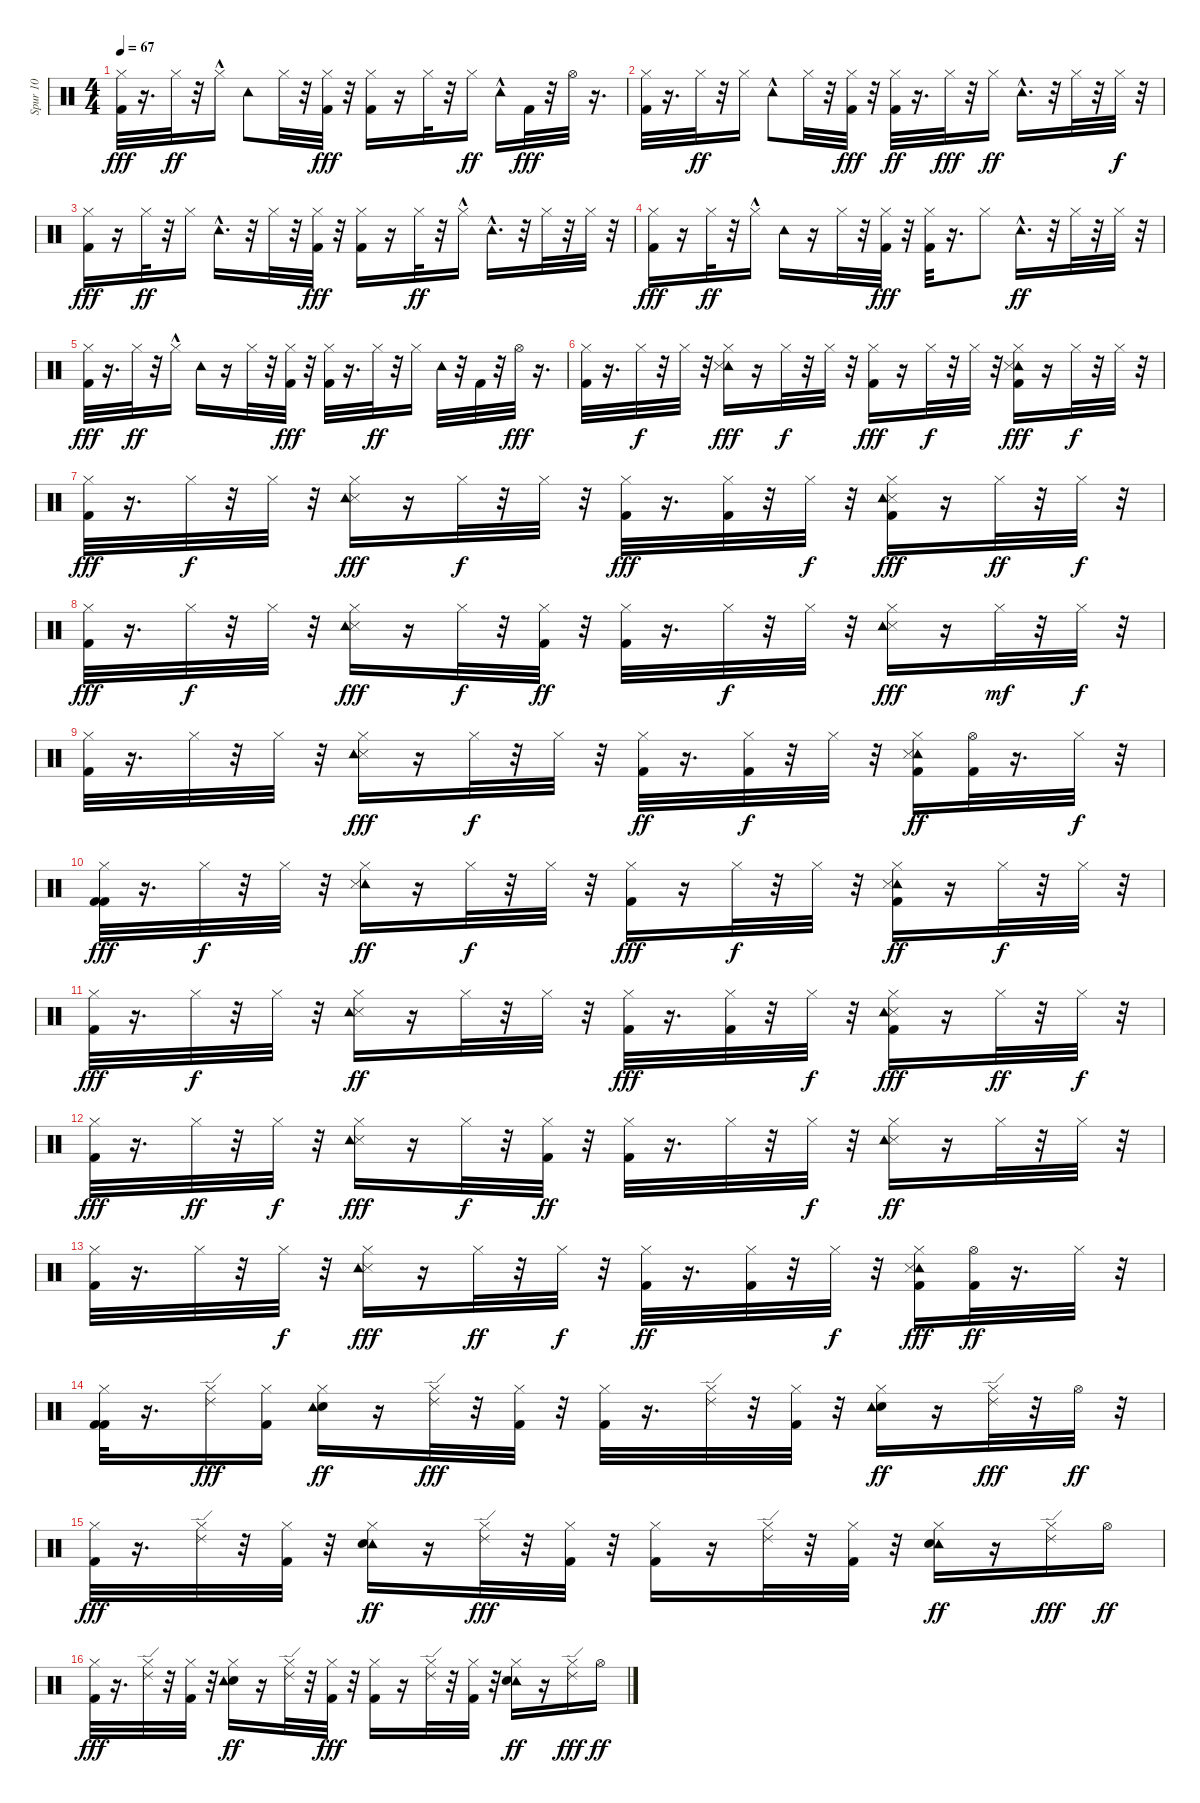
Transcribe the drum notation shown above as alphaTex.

\track ("Spur 10" "Spur 10") {instrument percussion}
\staff {score}
\articulation defaults
\ts (4 4)
\tempo 67
\clef neutral
\ks c
("Hi-Hat (closed)" "Kick (hit) 2").32{dy fff} r.16{d} "Hi-Hat (closed)".32{dy ff} r.32 "Hi-Hat (closed)"{hac}.16 "Tambourine (hit)".8 "Hi-Hat (closed)".32 r.32 ("Hi-Hat (closed)" "Kick (hit) 2").32{dy fff} r.32 ("Hi-Hat (closed)" "Kick (hit) 2").16 r.16 "Hi-Hat (closed)".32 r.32 "Hi-Hat (closed)".16{dy ff} "Tambourine (hit)"{hac}.16 "Kick (hit) 2".32{dy fff} r.32 "Hi-Hat (open)".32 r.16{d} |
("Hi-Hat (closed)" "Kick (hit) 2").32 r.16{d} "Hi-Hat (closed)".32{dy ff} r.32 "Hi-Hat (closed)".16 "Tambourine (hit)"{hac}.8 "Hi-Hat (closed)".32 r.32 ("Hi-Hat (closed)" "Kick (hit) 2").32{dy fff} r.32 ("Hi-Hat (closed)" "Kick (hit) 2").32{dy ff} r.16{d} "Hi-Hat (closed)".32{dy fff} r.32 "Hi-Hat (closed)".16{dy ff} "Tambourine (hit)"{hac}.16{d} r.32 "Hi-Hat (closed)".32 r.32 "Hi-Hat (closed)".32{dy f} r.32 |
("Hi-Hat (closed)" "Kick (hit) 2").16{dy fff} r.16 "Hi-Hat (closed)".32{dy ff} r.32 "Hi-Hat (closed)".16 "Tambourine (hit)"{hac}.16{d} r.32 "Hi-Hat (closed)".32 r.32 ("Hi-Hat (closed)" "Kick (hit) 2").32{dy fff} r.32 ("Hi-Hat (closed)" "Kick (hit) 2").16 r.16 "Hi-Hat (closed)".32{dy ff} r.32 "Hi-Hat (closed)"{hac}.16 "Tambourine (hit)"{hac}.16{d} r.32 "Hi-Hat (closed)".32 r.32 "Hi-Hat (closed)".32 r.32 |
("Hi-Hat (closed)" "Kick (hit) 2").16{dy fff} r.16 "Hi-Hat (closed)".32{dy ff} r.32 "Hi-Hat (closed)"{hac}.16 "Tambourine (hit)".16 r.16 "Hi-Hat (closed)".32 r.32 ("Hi-Hat (closed)" "Kick (hit) 2").32{dy fff} r.32 ("Hi-Hat (closed)" "Kick (hit) 2").32 r.16{d} "Hi-Hat (closed)".8 "Tambourine (hit)"{hac}.16{d dy ff} r.32 "Hi-Hat (closed)".32 r.32 "Hi-Hat (closed)".32 r.32 |
("Hi-Hat (closed)" "Kick (hit) 2").32{dy fff} r.16{d} "Hi-Hat (closed)".32{dy ff} r.32 "Hi-Hat (closed)"{hac}.16 "Tambourine (hit)".16 r.16 "Hi-Hat (closed)".32 r.32 ("Hi-Hat (closed)" "Kick (hit) 2").32{dy fff} r.32 ("Hi-Hat (closed)" "Kick (hit) 2").32 r.16{d} "Hi-Hat (closed)".32{dy ff} r.32 "Hi-Hat (closed)".16 "Tambourine (hit)".32 r.32 "Kick (hit) 2".32 r.32 "Hi-Hat (open)".32{dy fff} r.16{d} |
("Hi-Hat (closed)" "Kick (hit) 2").32 r.16{d} "Hi-Hat (closed)".32{dy f} r.32 "Hi-Hat (closed)".32 r.32 ("Hi-Hat (closed)" "Tambourine (hit)" "Snare (side stick) 3").16{dy fff} r.16 "Hi-Hat (closed)".32{dy f} r.32 "Hi-Hat (closed)".32 r.32 ("Hi-Hat (closed)" "Kick (hit) 2").16{dy fff} r.16 "Hi-Hat (closed)".32{dy f} r.32 "Hi-Hat (closed)".32 r.32 ("Hi-Hat (closed)" "Kick (hit) 2" "Tambourine (hit)" "Snare (side stick) 3").16{dy fff} r.16 "Hi-Hat (closed)".32{dy f} r.32 "Hi-Hat (closed)".32 r.32 |
("Hi-Hat (closed)" "Kick (hit) 2").32{dy fff} r.16{d} "Hi-Hat (closed)".32{dy f} r.32 "Hi-Hat (closed)".32 r.32 ("Hi-Hat (closed)" "Snare (side stick) 3" "Tambourine (hit)").16{dy fff} r.16 "Hi-Hat (closed)".32{dy f} r.32 "Hi-Hat (closed)".32 r.32 ("Hi-Hat (closed)" "Kick (hit) 2").32{dy fff} r.16{d} ("Hi-Hat (closed)" "Kick (hit) 2").32 r.32 "Hi-Hat (closed)".32{dy f} r.32 ("Hi-Hat (closed)" "Kick (hit) 2" "Snare (side stick) 3" "Tambourine (hit)").16{dy fff} r.16 "Hi-Hat (closed)".32{dy ff} r.32 "Hi-Hat (closed)".32{dy f} r.32 |
("Hi-Hat (closed)" "Kick (hit) 2").32{dy fff} r.16{d} "Hi-Hat (closed)".32{dy f} r.32 "Hi-Hat (closed)".32 r.32 ("Hi-Hat (closed)" "Snare (side stick) 3" "Tambourine (hit)").16{dy fff} r.16 "Hi-Hat (closed)".32{dy f} r.32 ("Hi-Hat (closed)" "Kick (hit) 2").32{dy ff} r.32 ("Hi-Hat (closed)" "Kick (hit) 2").32 r.16{d} "Hi-Hat (closed)".32{dy f} r.32 "Hi-Hat (closed)".32 r.32 ("Hi-Hat (closed)" "Snare (side stick) 3" "Tambourine (hit)").16{dy fff} r.16 "Hi-Hat (closed)".32{dy mf} r.32 "Hi-Hat (closed)".32{dy f} r.32 |
("Hi-Hat (closed)" "Kick (hit) 2").32 r.16{d} "Hi-Hat (closed)".32 r.32 "Hi-Hat (closed)".32 r.32 ("Hi-Hat (closed)" "Snare (side stick) 3" "Tambourine (hit)").16{dy fff} r.16 "Hi-Hat (closed)".32{dy f} r.32 "Hi-Hat (closed)".32 r.32 ("Hi-Hat (closed)" "Kick (hit) 2").32{dy ff} r.16{d} ("Hi-Hat (closed)" "Kick (hit) 2").32{dy f} r.32 "Hi-Hat (closed)".32 r.32 ("Hi-Hat (closed)" "Kick (hit) 2" "Tambourine (hit)" "Snare (side stick) 3").16{dy ff} ("Hi-Hat (open)" "Kick (hit) 2").32 r.16{d} "Hi-Hat (closed)".32{dy f} r.32 |
("Hi-Hat (closed)" "Kick (hit) 2" "Kick (hit) 2").32{dy fff} r.16{d} "Hi-Hat (closed)".32{dy f} r.32 "Hi-Hat (closed)".32 r.32 ("Hi-Hat (closed)" "Tambourine (hit)" "Snare (side stick) 3").16{dy ff} r.16 "Hi-Hat (closed)".32{dy f} r.32 "Hi-Hat (closed)".32 r.32 ("Hi-Hat (closed)" "Kick (hit) 2").16{dy fff} r.16 "Hi-Hat (closed)".32{dy f} r.32 "Hi-Hat (closed)".32 r.32 ("Hi-Hat (closed)" "Kick (hit) 2" "Tambourine (hit)" "Snare (side stick) 3").16{dy ff} r.16 "Hi-Hat (closed)".32{dy f} r.32 "Hi-Hat (closed)".32 r.32 |
("Hi-Hat (closed)" "Kick (hit) 2").32{dy fff} r.16{d} "Hi-Hat (closed)".32{dy f} r.32 "Hi-Hat (closed)".32 r.32 ("Hi-Hat (closed)" "Snare (side stick) 3" "Tambourine (hit)").16{dy ff} r.16 "Hi-Hat (closed)".32 r.32 "Hi-Hat (closed)".32 r.32 ("Hi-Hat (closed)" "Kick (hit) 2").32{dy fff} r.16{d} ("Hi-Hat (closed)" "Kick (hit) 2").32 r.32 "Hi-Hat (closed)".32{dy f} r.32 ("Hi-Hat (closed)" "Kick (hit) 2" "Snare (side stick) 3" "Tambourine (hit)").16{dy fff} r.16 "Hi-Hat (closed)".32{dy ff} r.32 "Hi-Hat (closed)".32{dy f} r.32 |
("Hi-Hat (closed)" "Kick (hit) 2").32{dy fff} r.16{d} "Hi-Hat (closed)".32{dy ff} r.32 "Hi-Hat (closed)".32{dy f} r.32 ("Hi-Hat (closed)" "Snare (side stick) 3" "Tambourine (hit)").16{dy fff} r.16 "Hi-Hat (closed)".32{dy f} r.32 ("Hi-Hat (closed)" "Kick (hit) 2").32{dy ff} r.32 ("Hi-Hat (closed)" "Kick (hit) 2").32 r.16{d} "Hi-Hat (closed)".32 r.32 "Hi-Hat (closed)".32{dy f} r.32 ("Hi-Hat (closed)" "Snare (side stick) 3" "Tambourine (hit)").16{dy ff} r.16 "Hi-Hat (closed)".32 r.32 "Hi-Hat (closed)".32 r.32 |
("Hi-Hat (closed)" "Kick (hit) 2").32 r.16{d} "Hi-Hat (closed)".32 r.32 "Hi-Hat (closed)".32{dy f} r.32 ("Hi-Hat (closed)" "Snare (side stick) 3" "Tambourine (hit)").16{dy fff} r.16 "Hi-Hat (closed)".32{dy ff} r.32 "Hi-Hat (closed)".32{dy f} r.32 ("Hi-Hat (closed)" "Kick (hit) 2").32{dy ff} r.16{d} ("Hi-Hat (closed)" "Kick (hit) 2").32 r.32 "Hi-Hat (closed)".32{dy f} r.32 ("Hi-Hat (closed)" "Kick (hit) 2" "Tambourine (hit)" "Snare (side stick) 3").16{dy fff} ("Hi-Hat (open)" "Kick (hit) 2").32{dy ff} r.16{d} "Hi-Hat (closed)".32 r.32 |
("Hi-Hat (closed)" "Kick (hit) 2" "Kick (hit) 2").32 r.16{d} ("Hi-Hat (closed)" "Ride (edge) 2").16{dy fff} ("Hi-Hat (closed)" "Kick (hit) 2").16 ("Hi-Hat (closed)" "Electric Snare (hit)" "Tambourine (hit)").16{dy ff} r.16 ("Hi-Hat (closed)" "Ride (edge) 2").32{dy fff} r.32 ("Hi-Hat (closed)" "Kick (hit) 2").32 r.32 ("Hi-Hat (closed)" "Kick (hit) 2").32 r.16{d} ("Hi-Hat (closed)" "Ride (edge) 2").32 r.32 ("Hi-Hat (closed)" "Kick (hit) 2").32 r.32 ("Hi-Hat (closed)" "Electric Snare (hit)" "Tambourine (hit)").16{dy ff} r.16 ("Hi-Hat (closed)" "Ride (edge) 2").32{dy fff} r.32 "Hi-Hat (open)".32{dy ff} r.32 |
("Hi-Hat (closed)" "Kick (hit) 2").32{dy fff} r.16{d} ("Hi-Hat (closed)" "Ride (edge) 2").32 r.32 ("Hi-Hat (closed)" "Kick (hit) 2").32 r.32 ("Hi-Hat (closed)" "Tambourine (hit)" "Electric Snare (hit)").16{dy ff} r.16 ("Hi-Hat (closed)" "Ride (edge) 2").32{dy fff} r.32 ("Hi-Hat (closed)" "Kick (hit) 2").32 r.32 ("Hi-Hat (closed)" "Kick (hit) 2").16 r.16 ("Hi-Hat (closed)" "Ride (edge) 2").32 r.32 ("Hi-Hat (closed)" "Kick (hit) 2").32 r.32 ("Hi-Hat (closed)" "Tambourine (hit)" "Electric Snare (hit)").16{dy ff} r.16 ("Hi-Hat (closed)" "Ride (edge) 2").16{dy fff} "Hi-Hat (open)".16{dy ff} |
("Hi-Hat (closed)" "Kick (hit) 2").32{dy fff} r.16{d} ("Hi-Hat (closed)" "Ride (edge) 2").32 r.32 ("Hi-Hat (closed)" "Kick (hit) 2").32 r.32 ("Hi-Hat (closed)" "Electric Snare (hit)" "Tambourine (hit)").16{dy ff} r.16 ("Hi-Hat (closed)" "Ride (edge) 2").32 r.32 ("Hi-Hat (closed)" "Kick (hit) 2").32{dy fff} r.32 ("Hi-Hat (closed)" "Kick (hit) 2").16 r.16 ("Hi-Hat (closed)" "Ride (edge) 2").32 r.32 ("Hi-Hat (closed)" "Kick (hit) 2").32 r.32 ("Hi-Hat (closed)" "Tambourine (hit)" "Electric Snare (hit)").16{dy ff} r.16 ("Hi-Hat (closed)" "Ride (edge) 2").16{dy fff} "Hi-Hat (open)".16{dy ff}
